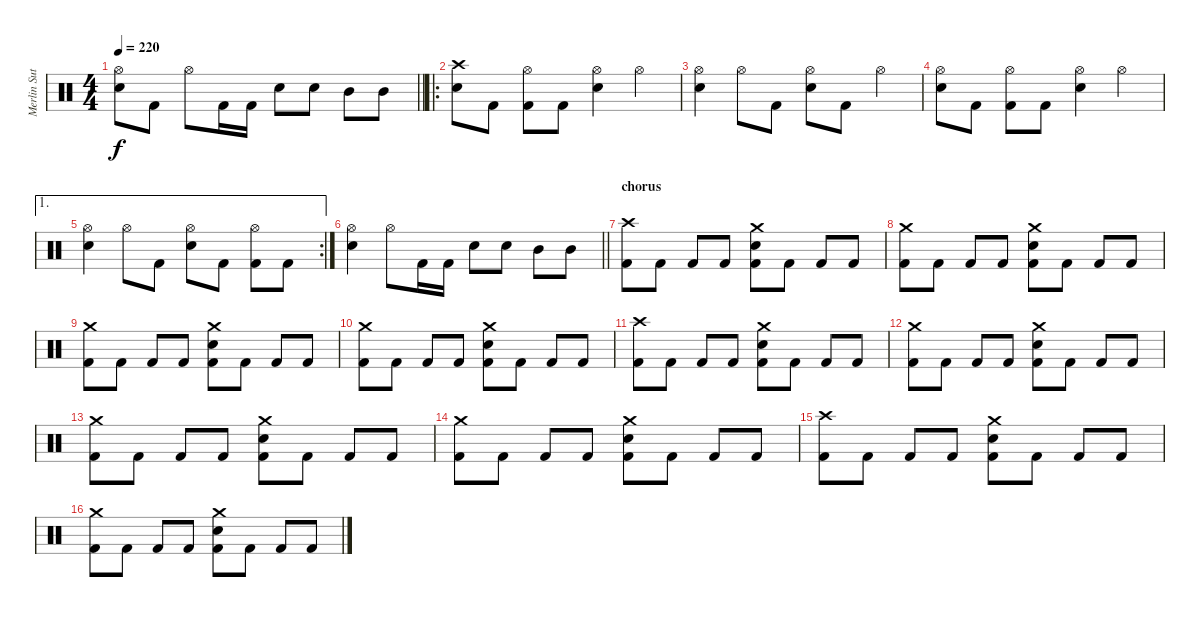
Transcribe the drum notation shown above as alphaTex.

\track ("Merlin Sutter" "Merlin Sut") {instrument percussion}
\staff {score}
\articulation defaults
\ts (4 4)
\tempo 220
\clef neutral
\barLineRight lightlight
\ks c
("Hi-Hat (open)" "Snare (hit) 2").8{dy f} "Kick (hit) 2".8 "Hi-Hat (open)".8 "Kick (hit) 2".16 "Kick (hit) 2".16 "Snare (hit) 2".8 "Snare (hit) 2".8 "Mid Tom (hit)".8 "Mid Tom (hit)".8 |
\ro
\section ("" "")
("Crash high (hit)" "Snare (hit) 2").8 "Kick (hit) 2".8 ("Hi-Hat (open)" "Kick (hit) 2").8 "Kick (hit) 2".8 ("Hi-Hat (open)" "Snare (hit) 2").4 "Hi-Hat (open)".4 |
("Hi-Hat (open)" "Snare (hit) 2").4 "Hi-Hat (open)".8 "Kick (hit) 2".8 ("Hi-Hat (open)" "Snare (hit) 2").8 "Kick (hit) 2".8 "Hi-Hat (open)".4 |
("Hi-Hat (open)" "Snare (hit) 2").8 "Kick (hit) 2".8 ("Hi-Hat (open)" "Kick (hit) 2").8 "Kick (hit) 2".8 ("Hi-Hat (open)" "Snare (hit) 2").4 "Hi-Hat (open)".4 |
\ae 1
\rc 2
("Hi-Hat (open)" "Snare (hit) 2").4 "Hi-Hat (open)".8 "Kick (hit) 2".8 ("Hi-Hat (open)" "Snare (hit) 2").8 "Kick (hit) 2".8 ("Hi-Hat (open)" "Kick (hit) 2").8 "Kick (hit) 2".8 |
\barLineRight lightlight
("Hi-Hat (open)" "Snare (hit) 2").4 "Hi-Hat (open)".8 "Kick (hit) 2".16 "Kick (hit) 2".16 "Snare (hit) 2".8 "Snare (hit) 2".8 "Mid Tom (hit)".8 "Mid Tom (hit)".8 |
\section ("" "chorus")
("Crash high (hit)" "Kick (hit) 2").8 "Kick (hit) 2".8 "Kick (hit) 2".8 "Kick (hit) 2".8 ("Crash medium (hit)" "Snare (hit) 2" "Kick (hit) 2").8 "Kick (hit) 2".8 "Kick (hit) 2".8 "Kick (hit) 2".8 |
("Crash medium (hit)" "Kick (hit) 2").8 "Kick (hit) 2".8 "Kick (hit) 2".8 "Kick (hit) 2".8 ("Crash medium (hit)" "Snare (hit) 2" "Kick (hit) 2").8 "Kick (hit) 2".8 "Kick (hit) 2".8 "Kick (hit) 2".8 |
("Crash medium (hit)" "Kick (hit) 2").8 "Kick (hit) 2".8 "Kick (hit) 2".8 "Kick (hit) 2".8 ("Crash medium (hit)" "Snare (hit) 2" "Kick (hit) 2").8 "Kick (hit) 2".8 "Kick (hit) 2".8 "Kick (hit) 2".8 |
("Crash medium (hit)" "Kick (hit) 2").8 "Kick (hit) 2".8 "Kick (hit) 2".8 "Kick (hit) 2".8 ("Crash medium (hit)" "Snare (hit) 2" "Kick (hit) 2").8 "Kick (hit) 2".8 "Kick (hit) 2".8 "Kick (hit) 2".8 |
("Crash high (hit)" "Kick (hit) 2").8 "Kick (hit) 2".8 "Kick (hit) 2".8 "Kick (hit) 2".8 ("Crash medium (hit)" "Snare (hit) 2" "Kick (hit) 2").8 "Kick (hit) 2".8 "Kick (hit) 2".8 "Kick (hit) 2".8 |
("Crash medium (hit)" "Kick (hit) 2").8 "Kick (hit) 2".8 "Kick (hit) 2".8 "Kick (hit) 2".8 ("Crash medium (hit)" "Snare (hit) 2" "Kick (hit) 2").8 "Kick (hit) 2".8 "Kick (hit) 2".8 "Kick (hit) 2".8 |
("Crash medium (hit)" "Kick (hit) 2").8 "Kick (hit) 2".8 "Kick (hit) 2".8 "Kick (hit) 2".8 ("Crash medium (hit)" "Snare (hit) 2" "Kick (hit) 2").8 "Kick (hit) 2".8 "Kick (hit) 2".8 "Kick (hit) 2".8 |
("Crash medium (hit)" "Kick (hit) 2").8 "Kick (hit) 2".8 "Kick (hit) 2".8 "Kick (hit) 2".8 ("Crash medium (hit)" "Snare (hit) 2" "Kick (hit) 2").8 "Kick (hit) 2".8 "Kick (hit) 2".8 "Kick (hit) 2".8 |
("Crash high (hit)" "Kick (hit) 2").8 "Kick (hit) 2".8 "Kick (hit) 2".8 "Kick (hit) 2".8 ("Crash medium (hit)" "Snare (hit) 2" "Kick (hit) 2").8 "Kick (hit) 2".8 "Kick (hit) 2".8 "Kick (hit) 2".8 |
("Crash medium (hit)" "Kick (hit) 2").8 "Kick (hit) 2".8 "Kick (hit) 2".8 "Kick (hit) 2".8 ("Crash medium (hit)" "Snare (hit) 2" "Kick (hit) 2").8 "Kick (hit) 2".8 "Kick (hit) 2".8 "Kick (hit) 2".8
